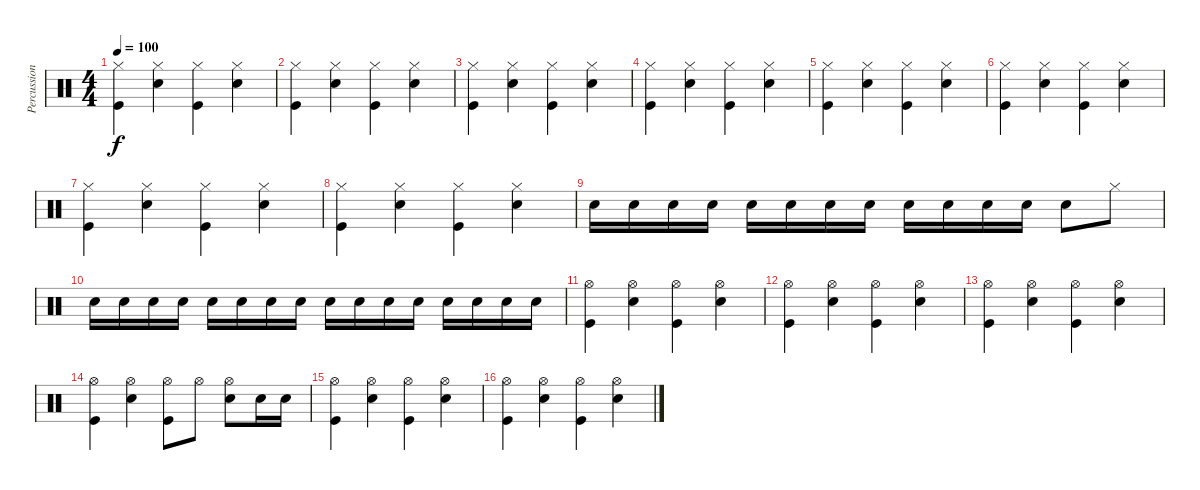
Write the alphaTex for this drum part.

\track ("Percussion" "Percussion") {instrument percussion}
\staff {score}
\articulation defaults
\ts (4 4)
\tempo 100
\clef neutral
\ks c
("Hi-Hat (closed)" "Kick (hit)").4{dy f} ("Hi-Hat (closed)" "Snare (hit) 2").4 ("Hi-Hat (closed)" "Kick (hit)").4 ("Hi-Hat (closed)" "Snare (hit) 2").4 |
("Hi-Hat (closed)" "Kick (hit)").4 ("Hi-Hat (closed)" "Snare (hit) 2").4 ("Hi-Hat (closed)" "Kick (hit)").4 ("Hi-Hat (closed)" "Snare (hit) 2").4 |
("Hi-Hat (closed)" "Kick (hit)").4 ("Hi-Hat (closed)" "Snare (hit) 2").4 ("Hi-Hat (closed)" "Kick (hit)").4 ("Hi-Hat (closed)" "Snare (hit) 2").4 |
("Hi-Hat (closed)" "Kick (hit)").4 ("Hi-Hat (closed)" "Snare (hit) 2").4 ("Hi-Hat (closed)" "Kick (hit)").4 ("Hi-Hat (closed)" "Snare (hit) 2").4 |
("Hi-Hat (closed)" "Kick (hit)").4 ("Hi-Hat (closed)" "Snare (hit) 2").4 ("Hi-Hat (closed)" "Kick (hit)").4 ("Hi-Hat (closed)" "Snare (hit) 2").4 |
("Hi-Hat (closed)" "Kick (hit)").4 ("Hi-Hat (closed)" "Snare (hit) 2").4 ("Hi-Hat (closed)" "Kick (hit)").4 ("Hi-Hat (closed)" "Snare (hit) 2").4 |
("Hi-Hat (closed)" "Kick (hit)").4 ("Hi-Hat (closed)" "Snare (hit) 2").4 ("Hi-Hat (closed)" "Kick (hit)").4 ("Hi-Hat (closed)" "Snare (hit) 2").4 |
("Hi-Hat (closed)" "Kick (hit)").4 ("Hi-Hat (closed)" "Snare (hit) 2").4 ("Hi-Hat (closed)" "Kick (hit)").4 ("Hi-Hat (closed)" "Snare (hit) 2").4 |
"Snare (hit) 2".16 "Snare (hit) 2".16 "Snare (hit) 2".16 "Snare (hit) 2".16 "Snare (hit) 2".16 "Snare (hit) 2".16 "Snare (hit) 2".16 "Snare (hit) 2".16 "Snare (hit) 2".16 "Snare (hit) 2".16 "Snare (hit) 2".16 "Snare (hit) 2".16 "Snare (hit) 2".8 "Hi-Hat (closed)".8 |
"Snare (hit) 2".16 "Snare (hit) 2".16 "Snare (hit) 2".16 "Snare (hit) 2".16 "Snare (hit) 2".16 "Snare (hit) 2".16 "Snare (hit) 2".16 "Snare (hit) 2".16 "Snare (hit) 2".16 "Snare (hit) 2".16 "Snare (hit) 2".16 "Snare (hit) 2".16 "Snare (hit) 2".16 "Snare (hit) 2".16 "Snare (hit) 2".16 "Snare (hit) 2".16 |
("Hi-Hat (open)" "Kick (hit)").4 ("Hi-Hat (open)" "Snare (hit) 2").4 ("Hi-Hat (open)" "Kick (hit)").4 ("Hi-Hat (open)" "Snare (hit) 2").4 |
("Hi-Hat (open)" "Kick (hit)").4 ("Hi-Hat (open)" "Snare (hit) 2").4 ("Hi-Hat (open)" "Kick (hit)").4 ("Hi-Hat (open)" "Snare (hit) 2").4 |
("Hi-Hat (open)" "Kick (hit)").4 ("Hi-Hat (open)" "Snare (hit) 2").4 ("Hi-Hat (open)" "Kick (hit)").4 ("Hi-Hat (open)" "Snare (hit) 2").4 |
("Hi-Hat (open)" "Kick (hit)").4 ("Hi-Hat (open)" "Snare (hit) 2").4 ("Hi-Hat (open)" "Kick (hit)").8 "Hi-Hat (open)".8 ("Hi-Hat (open)" "Snare (hit) 2").8 "Snare (hit) 2".16 "Snare (hit) 2".16 |
("Hi-Hat (open)" "Kick (hit)").4 ("Hi-Hat (open)" "Snare (hit) 2").4 ("Hi-Hat (open)" "Kick (hit)").4 ("Hi-Hat (open)" "Snare (hit) 2").4 |
("Hi-Hat (open)" "Kick (hit)").4 ("Hi-Hat (open)" "Snare (hit) 2").4 ("Hi-Hat (open)" "Kick (hit)").4 ("Hi-Hat (open)" "Snare (hit) 2").4
